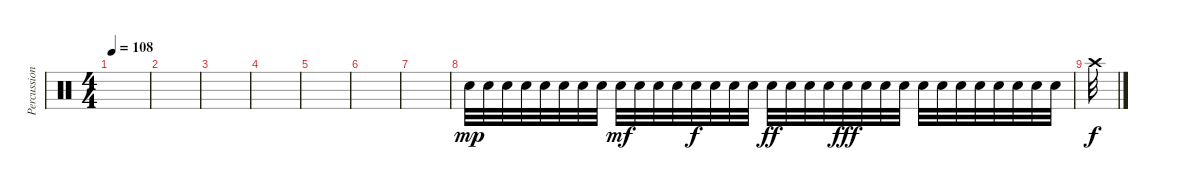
\track ("Percussion" "Percussion") {instrument percussion}
\staff {score}
\articulation defaults
\ts (4 4)
\tempo 108
\clef neutral
\ks c
|
|
|
|
|
|
|
"Snare (hit) 2".32{dy mp} "Snare (hit) 2".32 "Snare (hit) 2".32 "Snare (hit) 2".32 "Snare (hit) 2".32 "Snare (hit) 2".32 "Snare (hit) 2".32 "Snare (hit) 2".32 "Snare (hit) 2".32{dy mf} "Snare (hit) 2".32 "Snare (hit) 2".32 "Snare (hit) 2".32 "Snare (hit) 2".32{dy f} "Snare (hit) 2".32 "Snare (hit) 2".32 "Snare (hit) 2".32 "Snare (hit) 2".32{dy ff} "Snare (hit) 2".32 "Snare (hit) 2".32 "Snare (hit) 2".32 "Snare (hit) 2".32{dy fff} "Snare (hit) 2".32 "Snare (hit) 2".32 "Snare (hit) 2".32 "Snare (hit) 2".32 "Snare (hit) 2".32 "Snare (hit) 2".32 "Snare (hit) 2".32 "Snare (hit) 2".32 "Snare (hit) 2".32 "Snare (hit) 2".32 "Snare (hit) 2".32 |
"Crash high (hit)".32{dy f}
